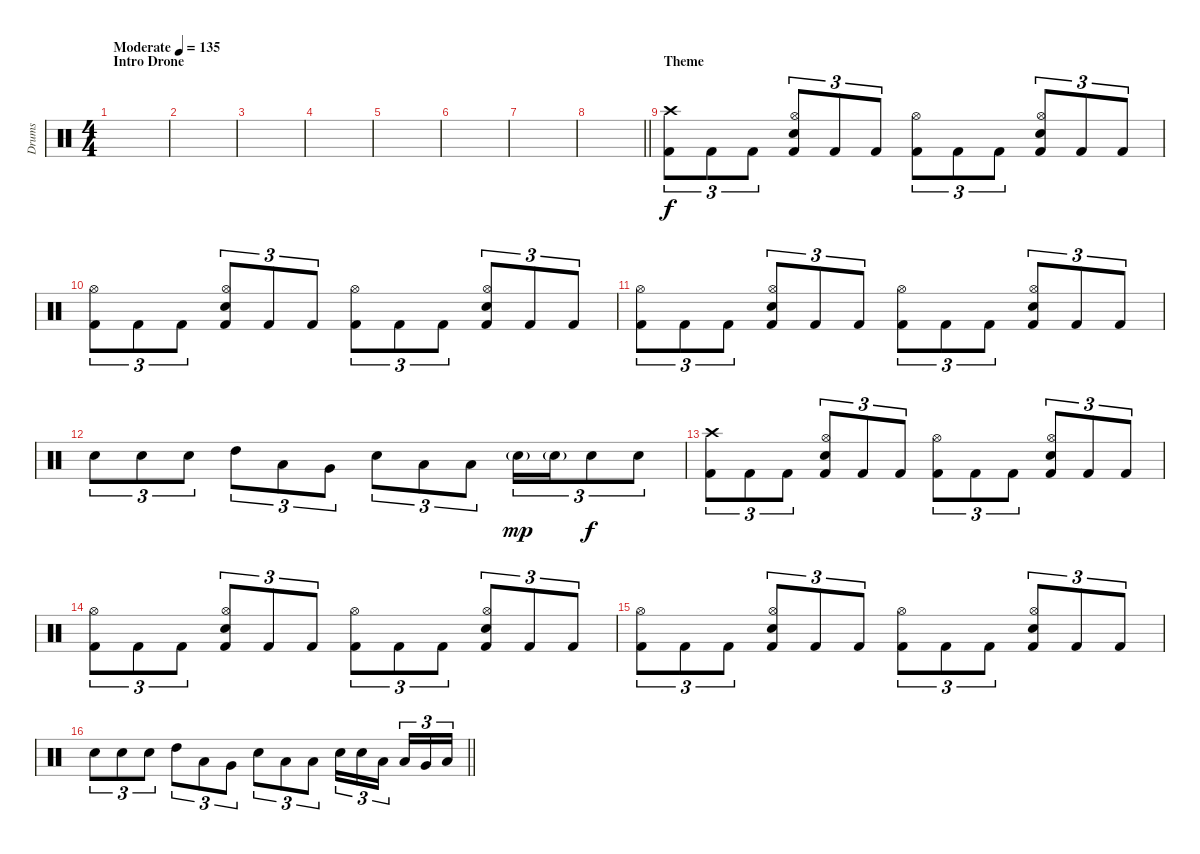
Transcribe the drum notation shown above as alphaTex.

\track ("Drums" "Drums") {instrument percussion}
\staff {score}
\articulation defaults
\ts (4 4)
\section ("" "Intro Drone")
\tempo (135 "Moderate")
\clef neutral
\ks c
|
|
|
|
|
|
|
\barLineRight lightlight
|
\section ("" "Theme")
("Crash high (hit)" "Kick (hit) 2").8{tu (3 2)} "Kick (hit) 2".8{tu (3 2)} "Kick (hit) 2".8{tu (3 2)} ("Hi-Hat (open)" "Snare (hit) 2" "Kick (hit) 2").8{tu (3 2)} "Kick (hit) 2".8{tu (3 2)} "Kick (hit) 2".8{tu (3 2)} ("Hi-Hat (open)" "Kick (hit) 2").8{tu (3 2)} "Kick (hit) 2".8{tu (3 2)} "Kick (hit) 2".8{tu (3 2)} ("Hi-Hat (open)" "Snare (hit) 2" "Kick (hit) 2").8{tu (3 2)} "Kick (hit) 2".8{tu (3 2)} "Kick (hit) 2".8{tu (3 2)} |
("Hi-Hat (open)" "Kick (hit) 2").8{tu (3 2)} "Kick (hit) 2".8{tu (3 2)} "Kick (hit) 2".8{tu (3 2)} ("Hi-Hat (open)" "Snare (hit) 2" "Kick (hit) 2").8{tu (3 2)} "Kick (hit) 2".8{tu (3 2)} "Kick (hit) 2".8{tu (3 2)} ("Hi-Hat (open)" "Kick (hit) 2").8{tu (3 2)} "Kick (hit) 2".8{tu (3 2)} "Kick (hit) 2".8{tu (3 2)} ("Hi-Hat (open)" "Snare (hit) 2" "Kick (hit) 2").8{tu (3 2)} "Kick (hit) 2".8{tu (3 2)} "Kick (hit) 2".8{tu (3 2)} |
("Hi-Hat (open)" "Kick (hit) 2").8{tu (3 2)} "Kick (hit) 2".8{tu (3 2)} "Kick (hit) 2".8{tu (3 2)} ("Hi-Hat (open)" "Snare (hit) 2" "Kick (hit) 2").8{tu (3 2)} "Kick (hit) 2".8{tu (3 2)} "Kick (hit) 2".8{tu (3 2)} ("Hi-Hat (open)" "Kick (hit) 2").8{tu (3 2)} "Kick (hit) 2".8{tu (3 2)} "Kick (hit) 2".8{tu (3 2)} ("Hi-Hat (open)" "Snare (hit) 2" "Kick (hit) 2").8{tu (3 2)} "Kick (hit) 2".8{tu (3 2)} "Kick (hit) 2".8{tu (3 2)} |
"Snare (hit) 2".8{tu (3 2)} "Snare (hit) 2".8{tu (3 2)} "Snare (hit) 2".8{tu (3 2)} "High Tom (hit)".8{tu (3 2)} "Low Tom (hit)".8{tu (3 2)} "Very Low Tom (hit)".8{tu (3 2)} "Snare (hit) 2".8{tu (3 2)} "Low Tom (hit)".8{tu (3 2)} "Low Floor Tom (hit)".8{tu (3 2)} "Snare (hit) 2"{g}.16{tu (3 2) dy mp} "Snare (hit) 2"{g}.16{tu (3 2)} "Snare (hit) 2".8{tu (3 2) dy f} "Snare (hit) 2".8{tu (3 2)} |
("Crash high (hit)" "Kick (hit) 2").8{tu (3 2)} "Kick (hit) 2".8{tu (3 2)} "Kick (hit) 2".8{tu (3 2)} ("Hi-Hat (open)" "Snare (hit) 2" "Kick (hit) 2").8{tu (3 2)} "Kick (hit) 2".8{tu (3 2)} "Kick (hit) 2".8{tu (3 2)} ("Hi-Hat (open)" "Kick (hit) 2").8{tu (3 2)} "Kick (hit) 2".8{tu (3 2)} "Kick (hit) 2".8{tu (3 2)} ("Hi-Hat (open)" "Snare (hit) 2" "Kick (hit) 2").8{tu (3 2)} "Kick (hit) 2".8{tu (3 2)} "Kick (hit) 2".8{tu (3 2)} |
("Hi-Hat (open)" "Kick (hit) 2").8{tu (3 2)} "Kick (hit) 2".8{tu (3 2)} "Kick (hit) 2".8{tu (3 2)} ("Hi-Hat (open)" "Snare (hit) 2" "Kick (hit) 2").8{tu (3 2)} "Kick (hit) 2".8{tu (3 2)} "Kick (hit) 2".8{tu (3 2)} ("Hi-Hat (open)" "Kick (hit) 2").8{tu (3 2)} "Kick (hit) 2".8{tu (3 2)} "Kick (hit) 2".8{tu (3 2)} ("Hi-Hat (open)" "Snare (hit) 2" "Kick (hit) 2").8{tu (3 2)} "Kick (hit) 2".8{tu (3 2)} "Kick (hit) 2".8{tu (3 2)} |
("Hi-Hat (open)" "Kick (hit) 2").8{tu (3 2)} "Kick (hit) 2".8{tu (3 2)} "Kick (hit) 2".8{tu (3 2)} ("Hi-Hat (open)" "Snare (hit) 2" "Kick (hit) 2").8{tu (3 2)} "Kick (hit) 2".8{tu (3 2)} "Kick (hit) 2".8{tu (3 2)} ("Hi-Hat (open)" "Kick (hit) 2").8{tu (3 2)} "Kick (hit) 2".8{tu (3 2)} "Kick (hit) 2".8{tu (3 2)} ("Hi-Hat (open)" "Snare (hit) 2" "Kick (hit) 2").8{tu (3 2)} "Kick (hit) 2".8{tu (3 2)} "Kick (hit) 2".8{tu (3 2)} |
\barLineRight lightlight "Snare (hit) 2".8{tu (3 2)} "Snare (hit) 2".8{tu (3 2)} "Snare (hit) 2".8{tu (3 2)} "High Tom (hit)".8{tu (3 2)} "Low Tom (hit)".8{tu (3 2)} "Very Low Tom (hit)".8{tu (3 2)} "Snare (hit) 2".8{tu (3 2)} "Low Tom (hit)".8{tu (3 2)} "Low Floor Tom (hit)".8{tu (3 2)} "Snare (hit) 2".16{tu (3 2)} "Snare (hit) 2".16{tu (3 2)} "Low Tom (hit)".16{tu (3 2) beam splitsecondary} "Low Tom (hit)".16{tu (3 2)} "Very Low Tom (hit)".16{tu (3 2)} "Low Floor Tom (hit)".16{tu (3 2)}
